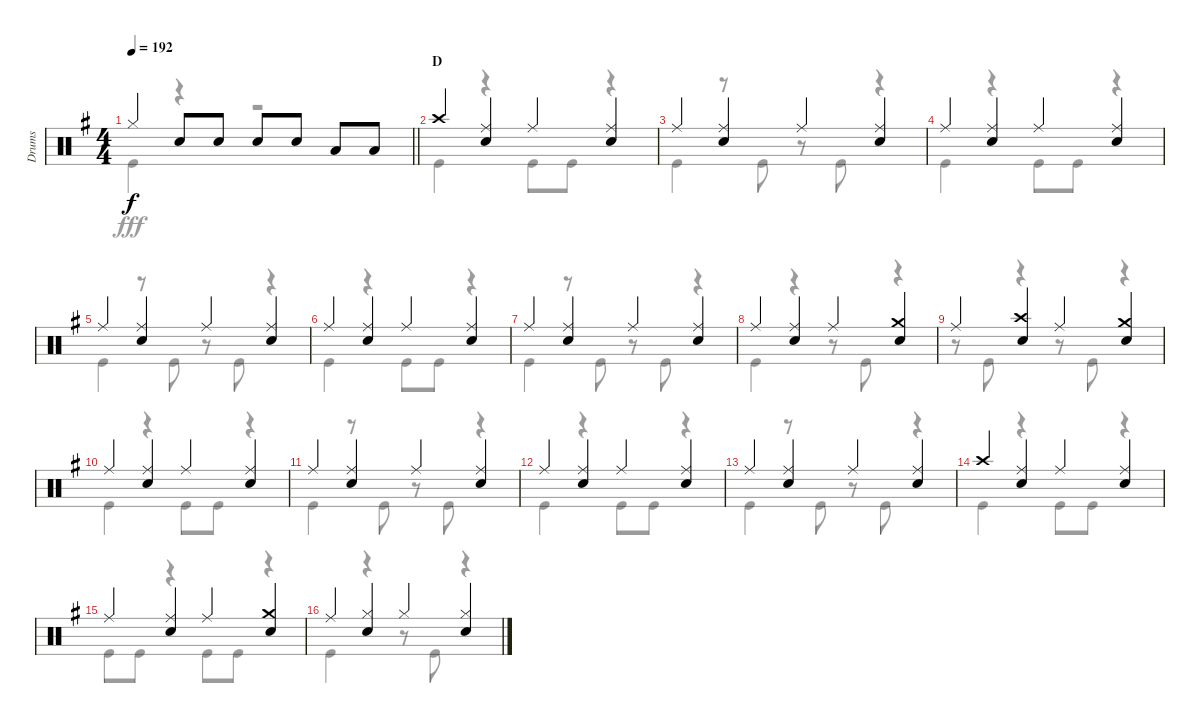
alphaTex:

\track ("Drums" "Drums") {instrument percussion}
\staff {score}
\articulation defaults
\voice
\ts (4 4)
\tempo 192
\clef neutral
\barLineRight lightlight
\ks g "Hi-Hat (closed)".4{dy f} "Snare (hit) 2".8 "Snare (hit) 2".8 "Snare (hit) 2".8 "Snare (hit) 2".8 "Low Tom (hit)".8 "Low Tom (hit)".8
|
\section ("" "D")
"Crash high (hit)".4 ("Ride (middle)" "Snare (hit) 2").4 "Ride (middle)".4 ("Ride (middle)" "Snare (hit) 2").4 |
"Ride (middle)".4 ("Ride (middle)" "Snare (hit) 2").4 "Ride (middle)".4 ("Ride (middle)" "Snare (hit) 2").4 |
"Ride (middle)".4 ("Ride (middle)" "Snare (hit) 2").4 "Ride (middle)".4 ("Ride (middle)" "Snare (hit) 2").4 |
"Ride (middle)".4 ("Ride (middle)" "Snare (hit) 2").4 "Ride (middle)".4 ("Ride (middle)" "Snare (hit) 2").4 |
"Ride (middle)".4 ("Ride (middle)" "Snare (hit) 2").4 "Ride (middle)".4 ("Ride (middle)" "Snare (hit) 2").4 |
"Ride (middle)".4 ("Ride (middle)" "Snare (hit) 2").4 "Ride (middle)".4 ("Ride (middle)" "Snare (hit) 2").4 |
"Ride (middle)".4 ("Ride (middle)" "Snare (hit) 2").4 "Ride (middle)".4 ("Crash medium (hit)" "Snare (hit) 2").4 |
"Ride (middle)".4 ("Crash high (hit)" "Snare (hit) 2").4 "Ride (middle)".4 ("Crash medium (hit)" "Snare (hit) 2").4 |
"Ride (middle)".4 ("Ride (middle)" "Snare (hit) 2").4 "Ride (middle)".4 ("Ride (middle)" "Snare (hit) 2").4 |
"Ride (middle)".4 ("Ride (middle)" "Snare (hit) 2").4 "Ride (middle)".4 ("Ride (middle)" "Snare (hit) 2").4 |
"Ride (middle)".4 ("Ride (middle)" "Snare (hit) 2").4 "Ride (middle)".4 ("Ride (middle)" "Snare (hit) 2").4 |
"Ride (middle)".4 ("Ride (middle)" "Snare (hit) 2").4 "Ride (middle)".4 ("Ride (middle)" "Snare (hit) 2").4 |
"Crash high (hit)".4 ("Ride (middle)" "Snare (hit) 2").4 "Ride (middle)".4 ("Ride (middle)" "Snare (hit) 2").4 |
"Ride (middle)".4 ("Ride (middle)" "Snare (hit) 2").4 "Ride (middle)".4 ("Crash medium (hit)" "Snare (hit) 2").4 |
"Ride (middle)".4 ("Hi-Hat (closed)" "Snare (hit) 2").4 "Hi-Hat (closed)".4 ("Hi-Hat (closed)" "Snare (hit) 2").4
\voice
\clef neutral
\ottava regular
\simile none
\barLineRight lightlight
\ks g "Kick (hit)".4{dy fff}
r.4 r.2 |
"Kick (hit)".4 r.4 "Kick (hit)".8 "Kick (hit)".8 r.4 |
"Kick (hit)".4 r.8 "Kick (hit)".8 r.8 "Kick (hit)".8 r.4 |
"Kick (hit)".4 r.4 "Kick (hit)".8 "Kick (hit)".8 r.4 |
"Kick (hit)".4 r.8 "Kick (hit)".8 r.8 "Kick (hit)".8 r.4 |
"Kick (hit)".4 r.4 "Kick (hit)".8 "Kick (hit)".8 r.4 |
"Kick (hit)".4 r.8 "Kick (hit)".8 r.8 "Kick (hit)".8 r.4 |
"Kick (hit)".4 r.4 r.8 "Kick (hit)".8 r.4 |
r.8 "Kick (hit)".8 r.4 r.8 "Kick (hit)".8 r.4 |
"Kick (hit)".4 r.4 "Kick (hit)".8 "Kick (hit)".8 r.4 |
"Kick (hit)".4 r.8 "Kick (hit)".8 r.8 "Kick (hit)".8 r.4 |
"Kick (hit)".4 r.4 "Kick (hit)".8 "Kick (hit)".8 r.4 |
"Kick (hit)".4 r.8 "Kick (hit)".8 r.8 "Kick (hit)".8 r.4 |
"Kick (hit)".4 r.4 "Kick (hit)".8 "Kick (hit)".8 r.4 |
"Kick (hit)".8 "Kick (hit)".8 r.4 "Kick (hit)".8 "Kick (hit)".8 r.4 |
"Kick (hit)".4 r.4 r.8 "Kick (hit)".8 r.4
